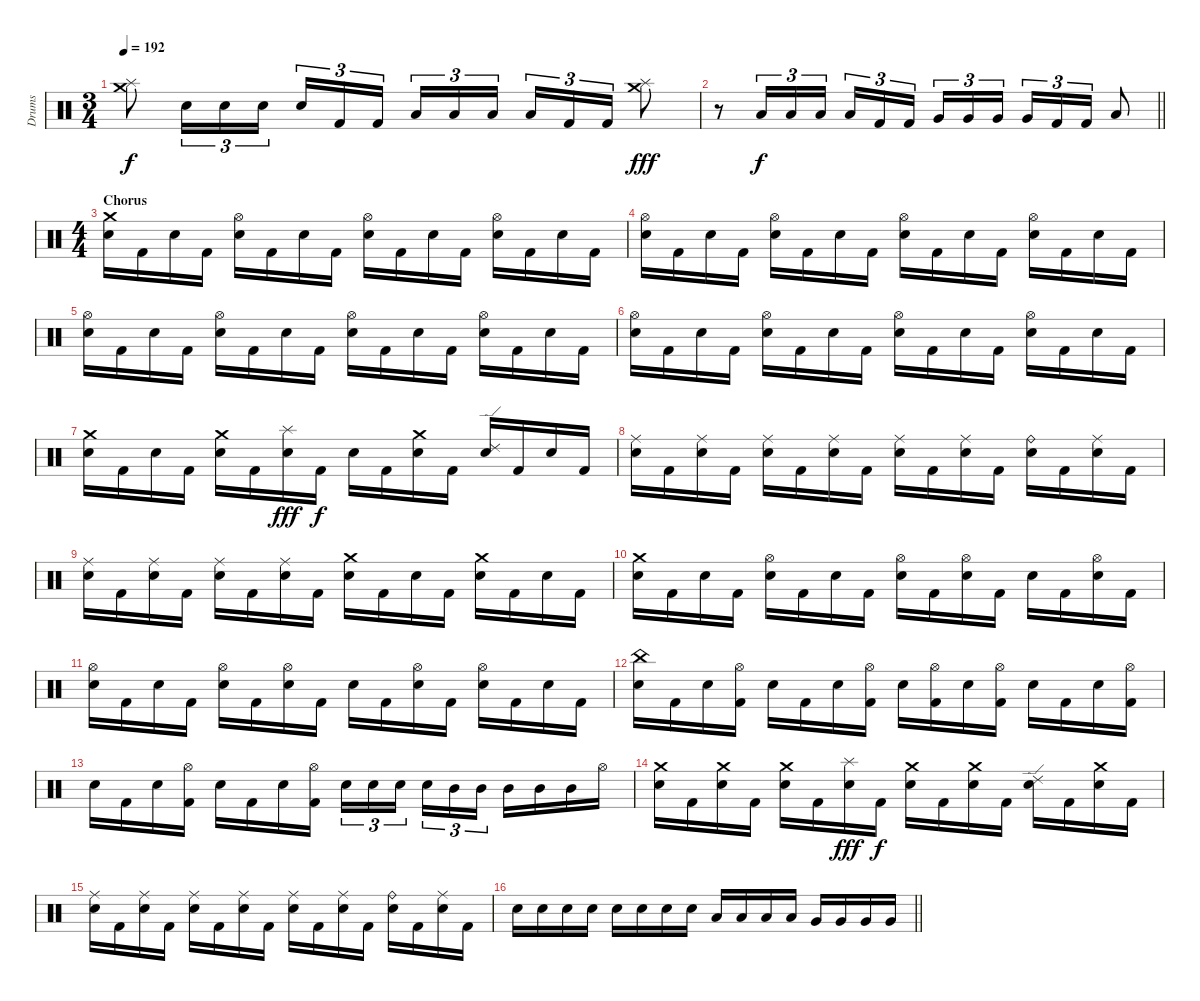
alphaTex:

\track ("Drums" "Drums") {instrument percussion}
\staff {score}
\articulation defaults
\ts (3 4)
\tempo 192
\clef neutral
\ks c
("Splash (hit)" "Crash medium (hit)").8{dy f} "Electric Snare (hit)".16{tu (3 2)} "Electric Snare (hit)".16{tu (3 2)} "Electric Snare (hit)".16{tu (3 2)} "Electric Snare (hit)".16{tu (3 2)} "Kick (hit) 2".16{tu (3 2)} "Kick (hit) 2".16{tu (3 2) beam splitsecondary} "Low Tom (hit)".16{tu (3 2)} "Low Tom (hit)".16{tu (3 2)} "Low Tom (hit)".16{tu (3 2)} "Low Tom (hit)".16{tu (3 2)} "Kick (hit) 2".16{tu (3 2)} "Kick (hit) 2".16{tu (3 2)} ("Splash (hit)" "Crash medium (hit)").8{dy fff} |
\barLineRight lightlight
r.8 "Low Tom (hit)".16{tu (3 2) dy f} "Low Tom (hit)".16{tu (3 2)} "Low Tom (hit)".16{tu (3 2)} "Low Tom (hit)".16{tu (3 2)} "Kick (hit) 2".16{tu (3 2)} "Kick (hit) 2".16{tu (3 2) beam splitsecondary} "Very Low Tom (hit)".16{tu (3 2)} "Very Low Tom (hit)".16{tu (3 2)} "Very Low Tom (hit)".16{tu (3 2)} "Very Low Tom (hit)".16{tu (3 2)} "Kick (hit) 2".16{tu (3 2)} "Kick (hit) 2".16{tu (3 2)} "Low Tom (hit)".8 |
\ts (4 4)
\section ("" "Chorus")
("Crash medium (hit)" "Electric Snare (hit)").16 "Kick (hit) 2".16 "Electric Snare (hit)".16 "Kick (hit) 2".16 ("Hi-Hat (open)" "Electric Snare (hit)").16 "Kick (hit) 2".16 "Electric Snare (hit)".16 "Kick (hit) 2".16 ("Hi-Hat (open)" "Electric Snare (hit)").16 "Kick (hit) 2".16 "Electric Snare (hit)".16 "Kick (hit) 2".16 ("Hi-Hat (open)" "Electric Snare (hit)").16 "Kick (hit) 2".16 "Electric Snare (hit)".16 "Kick (hit) 2".16 |
("Hi-Hat (open)" "Electric Snare (hit)").16 "Kick (hit) 2".16 "Electric Snare (hit)".16 "Kick (hit) 2".16 ("Hi-Hat (open)" "Electric Snare (hit)").16 "Kick (hit) 2".16 "Electric Snare (hit)".16 "Kick (hit) 2".16 ("Hi-Hat (open)" "Electric Snare (hit)").16 "Kick (hit) 2".16 "Electric Snare (hit)".16 "Kick (hit) 2".16 ("Hi-Hat (open)" "Electric Snare (hit)").16 "Kick (hit) 2".16 "Electric Snare (hit)".16 "Kick (hit) 2".16 |
("Hi-Hat (open)" "Electric Snare (hit)").16 "Kick (hit) 2".16 "Electric Snare (hit)".16 "Kick (hit) 2".16 ("Hi-Hat (open)" "Electric Snare (hit)").16 "Kick (hit) 2".16 "Electric Snare (hit)".16 "Kick (hit) 2".16 ("Hi-Hat (open)" "Electric Snare (hit)").16 "Kick (hit) 2".16 "Electric Snare (hit)".16 "Kick (hit) 2".16 ("Hi-Hat (open)" "Electric Snare (hit)").16 "Kick (hit) 2".16 "Electric Snare (hit)".16 "Kick (hit) 2".16 |
("Hi-Hat (open)" "Electric Snare (hit)").16 "Kick (hit) 2".16 "Electric Snare (hit)".16 "Kick (hit) 2".16 ("Hi-Hat (open)" "Electric Snare (hit)").16 "Kick (hit) 2".16 "Electric Snare (hit)".16 "Kick (hit) 2".16 ("Hi-Hat (open)" "Electric Snare (hit)").16 "Kick (hit) 2".16 "Electric Snare (hit)".16 "Kick (hit) 2".16 ("Hi-Hat (open)" "Electric Snare (hit)").16 "Kick (hit) 2".16 "Electric Snare (hit)".16 "Kick (hit) 2".16 |
("Crash medium (hit)" "Electric Snare (hit)").16 "Kick (hit) 2".16 "Electric Snare (hit)".16 "Kick (hit) 2".16 ("Crash medium (hit)" "Electric Snare (hit)").16 "Kick (hit) 2".16 ("Splash (hit)" "Electric Snare (hit)").16{dy fff} "Kick (hit) 2".16{dy f} "Electric Snare (hit)".16 "Kick (hit) 2".16 ("Crash medium (hit)" "Electric Snare (hit)").16 "Kick (hit) 2".16 ("Ride (edge) 2" "Electric Snare (hit)").16 "Kick (hit) 2".16 "Electric Snare (hit)".16 "Kick (hit) 2".16 |
("Ride (middle)" "Electric Snare (hit)").16 "Kick (hit) 2".16 ("Ride (middle)" "Electric Snare (hit)").16 "Kick (hit) 2".16 ("Ride (middle)" "Electric Snare (hit)").16 "Kick (hit) 2".16 ("Ride (middle)" "Electric Snare (hit)").16 "Kick (hit) 2".16 ("Ride (middle)" "Electric Snare (hit)").16 "Kick (hit) 2".16 ("Ride (middle)" "Electric Snare (hit)").16 "Kick (hit) 2".16 ("Ride (bell)" "Electric Snare (hit)").16 "Kick (hit) 2".16 ("Ride (middle)" "Electric Snare (hit)").16 "Kick (hit) 2".16 |
("Ride (middle)" "Electric Snare (hit)").16 "Kick (hit) 2".16 ("Ride (middle)" "Electric Snare (hit)").16 "Kick (hit) 2".16 ("Ride (middle)" "Electric Snare (hit)").16 "Kick (hit) 2".16 ("Ride (middle)" "Electric Snare (hit)").16 "Kick (hit) 2".16 ("Crash medium (hit)" "Electric Snare (hit)").16 "Kick (hit) 2".16 "Electric Snare (hit)".16 "Kick (hit) 2".16 ("Crash medium (hit)" "Electric Snare (hit)").16 "Kick (hit) 2".16 "Electric Snare (hit)".16 "Kick (hit) 2".16 |
("Crash medium (hit)" "Electric Snare (hit)").16 "Kick (hit) 2".16 "Electric Snare (hit)".16 "Kick (hit) 2".16 ("Hi-Hat (open)" "Electric Snare (hit)").16 "Kick (hit) 2".16 "Electric Snare (hit)".16 "Kick (hit) 2".16 ("Hi-Hat (open)" "Electric Snare (hit)").16 "Kick (hit) 2".16 ("Hi-Hat (open)" "Electric Snare (hit)").16 "Kick (hit) 2".16 "Electric Snare (hit)".16 "Kick (hit) 2".16 ("Hi-Hat (open)" "Electric Snare (hit)").16 "Kick (hit) 2".16 |
("Hi-Hat (open)" "Electric Snare (hit)").16 "Kick (hit) 2".16 "Electric Snare (hit)".16 "Kick (hit) 2".16 ("Hi-Hat (open)" "Electric Snare (hit)").16 "Kick (hit) 2".16 ("Hi-Hat (open)" "Electric Snare (hit)").16 "Kick (hit) 2".16 "Electric Snare (hit)".16 "Kick (hit) 2".16 ("Hi-Hat (open)" "Electric Snare (hit)").16 "Kick (hit) 2".16 ("Hi-Hat (open)" "Electric Snare (hit)").16 "Kick (hit) 2".16 "Electric Snare (hit)".16 "Kick (hit) 2".16 |
("China (hit)" "Electric Snare (hit)").16 "Kick (hit) 2".16 "Electric Snare (hit)".16 ("Hi-Hat (open)" "Kick (hit) 2").16 "Electric Snare (hit)".16 "Kick (hit) 2".16 "Electric Snare (hit)".16 ("Hi-Hat (open)" "Kick (hit) 2").16 "Electric Snare (hit)".16 ("Hi-Hat (open)" "Kick (hit) 2").16 "Electric Snare (hit)".16 ("Hi-Hat (open)" "Kick (hit) 2").16 "Electric Snare (hit)".16 "Kick (hit) 2".16 "Electric Snare (hit)".16 ("Hi-Hat (open)" "Kick (hit) 2").16 |
"Electric Snare (hit)".16 "Kick (hit) 2".16 "Electric Snare (hit)".16 ("Hi-Hat (open)" "Kick (hit) 2").16 "Electric Snare (hit)".16 "Kick (hit) 2".16 "Electric Snare (hit)".16 ("Hi-Hat (open)" "Kick (hit) 2").16 "Electric Snare (hit)".16{tu (3 2)} "Electric Snare (hit)".16{tu (3 2)} "Electric Snare (hit)".16{tu (3 2) beam splitsecondary} "Electric Snare (hit)".16{tu (3 2)} "Mid Tom (hit)".16{tu (3 2)} "Mid Tom (hit)".16{tu (3 2)} "Mid Tom (hit)".16 "Mid Tom (hit)".16 "Mid Tom (hit)".16 "Hi-Hat (open)".16 |
("Crash medium (hit)" "Electric Snare (hit)").16 "Kick (hit) 2".16 ("Crash medium (hit)" "Electric Snare (hit)").16 "Kick (hit) 2".16 ("Crash medium (hit)" "Electric Snare (hit)").16 "Kick (hit) 2".16 ("Splash (hit)" "Electric Snare (hit)").16{dy fff} "Kick (hit) 2".16{dy f} ("Crash medium (hit)" "Electric Snare (hit)").16 "Kick (hit) 2".16 ("Crash medium (hit)" "Electric Snare (hit)").16 "Kick (hit) 2".16 ("Ride (edge) 2" "Electric Snare (hit)").16 "Kick (hit) 2".16 ("Crash medium (hit)" "Electric Snare (hit)").16 "Kick (hit) 2".16 |
("Ride (middle)" "Electric Snare (hit)").16 "Kick (hit) 2".16 ("Ride (middle)" "Electric Snare (hit)").16 "Kick (hit) 2".16 ("Ride (middle)" "Electric Snare (hit)").16 "Kick (hit) 2".16 ("Ride (middle)" "Electric Snare (hit)").16 "Kick (hit) 2".16 ("Ride (middle)" "Electric Snare (hit)").16 "Kick (hit) 2".16 ("Ride (middle)" "Electric Snare (hit)").16 "Kick (hit) 2".16 ("Ride (bell)" "Electric Snare (hit)").16 "Kick (hit) 2".16 ("Ride (middle)" "Electric Snare (hit)").16 "Kick (hit) 2".16 |
\barLineRight lightlight "Electric Snare (hit)".16 "Electric Snare (hit)".16 "Electric Snare (hit)".16 "Electric Snare (hit)".16 "Electric Snare (hit)".16 "Electric Snare (hit)".16 "Electric Snare (hit)".16 "Electric Snare (hit)".16 "Low Tom (hit)".16 "Low Tom (hit)".16 "Low Tom (hit)".16 "Low Tom (hit)".16 "Very Low Tom (hit)".16 "Very Low Tom (hit)".16 "Very Low Tom (hit)".16 "Very Low Tom (hit)".16
